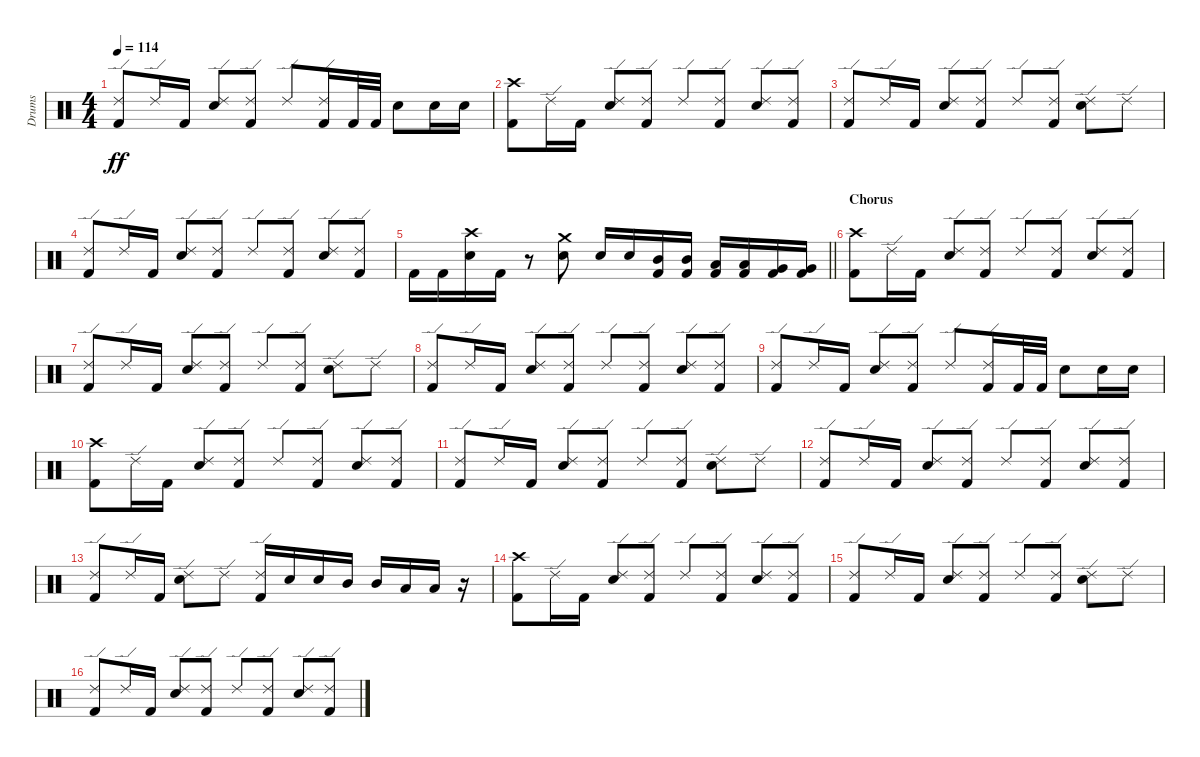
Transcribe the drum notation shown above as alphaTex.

\track ("Drums               " "Drums     ") {instrument percussion}
\staff {score}
\articulation defaults
\ts (4 4)
\tempo 114
\clef neutral
\ks c
("Kick (hit) 2" "Ride (edge) 2").8{dy ff} "Ride (edge) 2".16 "Kick (hit) 2".16 ("Electric Snare (hit)" "Ride (edge) 2").8 ("Kick (hit) 2" "Ride (edge) 2").8 "Ride (edge) 2".8 ("Kick (hit) 2" "Ride (edge) 2").16 "Kick (hit) 2".32 "Kick (hit) 2".32 "Electric Snare (hit)".8 "Electric Snare (hit)".16 "Electric Snare (hit)".16 |
("Kick (hit) 2" "Crash high (hit)").8 "Ride (edge) 2".16 "Kick (hit) 2".16 ("Electric Snare (hit)" "Ride (edge) 2").8 ("Kick (hit) 2" "Ride (edge) 2").8 "Ride (edge) 2".8 ("Kick (hit) 2" "Ride (edge) 2").8 ("Ride (edge) 2" "Electric Snare (hit)").8 ("Kick (hit) 2" "Ride (edge) 2").8 |
("Kick (hit) 2" "Ride (edge) 2").8 "Ride (edge) 2".16 "Kick (hit) 2".16 ("Electric Snare (hit)" "Ride (edge) 2").8 ("Kick (hit) 2" "Ride (edge) 2").8 "Ride (edge) 2".8 ("Ride (edge) 2" "Kick (hit) 2").8 ("Ride (edge) 2" "Electric Snare (hit)").8 "Ride (edge) 2".8 |
("Kick (hit) 2" "Ride (edge) 2").8 "Ride (edge) 2".16 "Kick (hit) 2".16 ("Electric Snare (hit)" "Ride (edge) 2").8 ("Kick (hit) 2" "Ride (edge) 2").8 "Ride (edge) 2".8 ("Kick (hit) 2" "Ride (edge) 2").8 ("Ride (edge) 2" "Electric Snare (hit)").8 ("Kick (hit) 2" "Ride (edge) 2").8 |
\barLineRight lightlight "Kick (hit) 2".16 "Kick (hit) 2".16
("Crash high (hit)" "Electric Snare (hit)").16 "Kick (hit) 2".16 r.8 ("Crash medium (hit)" "Electric Snare (hit)").8 "Electric Snare (hit)".16 "Electric Snare (hit)".16 ("Kick (hit) 2" "Mid Tom (hit)").16 ("Kick (hit) 2" "Mid Tom (hit)").16 ("Kick (hit) 2" "Low Tom (hit)").16 ("Kick (hit) 2" "Low Tom (hit)").16 ("Kick (hit) 2" "Very Low Tom (hit)").16 ("Kick (hit) 2" "Very Low Tom (hit)").16 |
\section ("" "Chorus")
("Kick (hit) 2" "Crash high (hit)").8 "Ride (edge) 2".16 "Kick (hit) 2".16 ("Electric Snare (hit)" "Ride (edge) 2").8 ("Kick (hit) 2" "Ride (edge) 2").8 "Ride (edge) 2".8 ("Kick (hit) 2" "Ride (edge) 2").8 ("Ride (edge) 2" "Electric Snare (hit)").8 ("Kick (hit) 2" "Ride (edge) 2").8 |
("Kick (hit) 2" "Ride (edge) 2").8 "Ride (edge) 2".16 "Kick (hit) 2".16 ("Electric Snare (hit)" "Ride (edge) 2").8 ("Kick (hit) 2" "Ride (edge) 2").8 "Ride (edge) 2".8 ("Ride (edge) 2" "Kick (hit) 2").8 ("Ride (edge) 2" "Electric Snare (hit)").8 "Ride (edge) 2".8 |
("Kick (hit) 2" "Ride (edge) 2").8 "Ride (edge) 2".16 "Kick (hit) 2".16 ("Electric Snare (hit)" "Ride (edge) 2").8 ("Kick (hit) 2" "Ride (edge) 2").8 "Ride (edge) 2".8 ("Kick (hit) 2" "Ride (edge) 2").8 ("Ride (edge) 2" "Electric Snare (hit)").8 ("Kick (hit) 2" "Ride (edge) 2").8 |
("Kick (hit) 2" "Ride (edge) 2").8 "Ride (edge) 2".16 "Kick (hit) 2".16 ("Electric Snare (hit)" "Ride (edge) 2").8 ("Kick (hit) 2" "Ride (edge) 2").8 "Ride (edge) 2".8 ("Ride (edge) 2" "Kick (hit) 2").16 "Kick (hit) 2".32 "Kick (hit) 2".32 "Electric Snare (hit)".8 "Electric Snare (hit)".16 "Electric Snare (hit)".16 |
("Kick (hit) 2" "Crash high (hit)").8 "Ride (edge) 2".16 "Kick (hit) 2".16 ("Ride (edge) 2" "Electric Snare (hit)").8 ("Ride (edge) 2" "Kick (hit) 2").8 "Ride (edge) 2".8 ("Kick (hit) 2" "Ride (edge) 2").8 ("Ride (edge) 2" "Electric Snare (hit)").8 ("Kick (hit) 2" "Ride (edge) 2").8 |
("Kick (hit) 2" "Ride (edge) 2").8 "Ride (edge) 2".16 "Kick (hit) 2".16 ("Ride (edge) 2" "Electric Snare (hit)").8 ("Kick (hit) 2" "Ride (edge) 2").8 "Ride (edge) 2".8 ("Kick (hit) 2" "Ride (edge) 2").8 ("Ride (edge) 2" "Electric Snare (hit)").8 "Ride (edge) 2".8 |
("Ride (edge) 2" "Kick (hit) 2").8 "Ride (edge) 2".16 "Kick (hit) 2".16 ("Electric Snare (hit)" "Ride (edge) 2").8 ("Kick (hit) 2" "Ride (edge) 2").8 "Ride (edge) 2".8 ("Ride (edge) 2" "Kick (hit) 2").8 ("Electric Snare (hit)" "Ride (edge) 2").8 ("Kick (hit) 2" "Ride (edge) 2").8 |
("Ride (edge) 2" "Kick (hit) 2").8 "Ride (edge) 2".16 "Kick (hit) 2".16 ("Electric Snare (hit)" "Ride (edge) 2").8 "Ride (edge) 2".8 ("Ride (edge) 2" "Kick (hit) 2").16 "Electric Snare (hit)".16 "Electric Snare (hit)".16 "Mid Tom (hit)".16 "Mid Tom (hit)".16 "Low Tom (hit)".16 "Low Tom (hit)".16 r.16 |
("Kick (hit) 2" "Crash high (hit)").8 "Ride (edge) 2".16 "Kick (hit) 2".16 ("Electric Snare (hit)" "Ride (edge) 2").8 ("Kick (hit) 2" "Ride (edge) 2").8 "Ride (edge) 2".8 ("Kick (hit) 2" "Ride (edge) 2").8 ("Ride (edge) 2" "Electric Snare (hit)").8 ("Kick (hit) 2" "Ride (edge) 2").8 |
("Kick (hit) 2" "Ride (edge) 2").8 "Ride (edge) 2".16 "Kick (hit) 2".16 ("Electric Snare (hit)" "Ride (edge) 2").8 ("Kick (hit) 2" "Ride (edge) 2").8 "Ride (edge) 2".8 ("Ride (edge) 2" "Kick (hit) 2").8 ("Ride (edge) 2" "Electric Snare (hit)").8 "Ride (edge) 2".8 |
("Kick (hit) 2" "Ride (edge) 2").8 "Ride (edge) 2".16 "Kick (hit) 2".16 ("Electric Snare (hit)" "Ride (edge) 2").8 ("Kick (hit) 2" "Ride (edge) 2").8 "Ride (edge) 2".8 ("Kick (hit) 2" "Ride (edge) 2").8 ("Ride (edge) 2" "Electric Snare (hit)").8 ("Kick (hit) 2" "Ride (edge) 2").8
